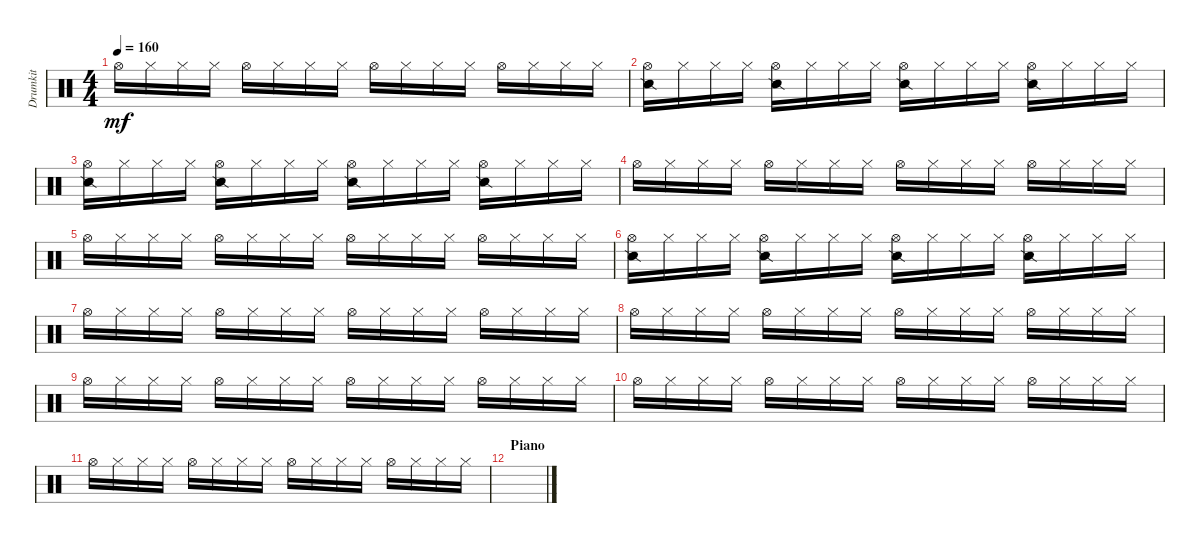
\track ("Drumkit" "Drumkit") {instrument percussion}
\staff {score}
\articulation defaults
\ts (4 4)
\tempo 160
\clef neutral
\ks c "Hi-Hat (open)".16{dy mf} "Hi-Hat (closed)".16 "Hi-Hat (closed)".16 "Hi-Hat (closed)".16 "Hi-Hat (open)".16 "Hi-Hat (closed)".16 "Hi-Hat (closed)".16 "Hi-Hat (closed)".16 "Hi-Hat (open)".16 "Hi-Hat (closed)".16 "Hi-Hat (closed)".16 "Hi-Hat (closed)".16 "Hi-Hat (open)".16 "Hi-Hat (closed)".16 "Hi-Hat (closed)".16 "Hi-Hat (closed)".16
|
("Hi-Hat (open)" "Snare (side stick) 2").16 "Hi-Hat (closed)".16 "Hi-Hat (closed)".16 "Hi-Hat (closed)".16 ("Hi-Hat (open)" "Snare (side stick) 2").16 "Hi-Hat (closed)".16 "Hi-Hat (closed)".16 "Hi-Hat (closed)".16 ("Hi-Hat (open)" "Snare (side stick) 2").16 "Hi-Hat (closed)".16 "Hi-Hat (closed)".16 "Hi-Hat (closed)".16 ("Hi-Hat (open)" "Snare (side stick) 2").16 "Hi-Hat (closed)".16 "Hi-Hat (closed)".16 "Hi-Hat (closed)".16 |
("Hi-Hat (open)" "Snare (side stick) 2").16 "Hi-Hat (closed)".16 "Hi-Hat (closed)".16 "Hi-Hat (closed)".16 ("Hi-Hat (open)" "Snare (side stick) 2").16 "Hi-Hat (closed)".16 "Hi-Hat (closed)".16 "Hi-Hat (closed)".16 ("Hi-Hat (open)" "Snare (side stick) 2").16 "Hi-Hat (closed)".16 "Hi-Hat (closed)".16 "Hi-Hat (closed)".16 ("Hi-Hat (open)" "Snare (side stick) 2").16 "Hi-Hat (closed)".16 "Hi-Hat (closed)".16 "Hi-Hat (closed)".16 |
"Hi-Hat (open)".16 "Hi-Hat (closed)".16 "Hi-Hat (closed)".16 "Hi-Hat (closed)".16 "Hi-Hat (open)".16 "Hi-Hat (closed)".16 "Hi-Hat (closed)".16 "Hi-Hat (closed)".16 "Hi-Hat (open)".16 "Hi-Hat (closed)".16 "Hi-Hat (closed)".16 "Hi-Hat (closed)".16 "Hi-Hat (open)".16 "Hi-Hat (closed)".16 "Hi-Hat (closed)".16 "Hi-Hat (closed)".16 |
"Hi-Hat (open)".16 "Hi-Hat (closed)".16 "Hi-Hat (closed)".16 "Hi-Hat (closed)".16 "Hi-Hat (open)".16 "Hi-Hat (closed)".16 "Hi-Hat (closed)".16 "Hi-Hat (closed)".16 "Hi-Hat (open)".16 "Hi-Hat (closed)".16 "Hi-Hat (closed)".16 "Hi-Hat (closed)".16 "Hi-Hat (open)".16 "Hi-Hat (closed)".16 "Hi-Hat (closed)".16 "Hi-Hat (closed)".16 |
("Hi-Hat (open)" "Snare (side stick) 2").16 "Hi-Hat (closed)".16 "Hi-Hat (closed)".16 "Hi-Hat (closed)".16 ("Hi-Hat (open)" "Snare (side stick) 2").16 "Hi-Hat (closed)".16 "Hi-Hat (closed)".16 "Hi-Hat (closed)".16 ("Hi-Hat (open)" "Snare (side stick) 2").16 "Hi-Hat (closed)".16 "Hi-Hat (closed)".16 "Hi-Hat (closed)".16 ("Hi-Hat (open)" "Snare (side stick) 2").16 "Hi-Hat (closed)".16 "Hi-Hat (closed)".16 "Hi-Hat (closed)".16 |
"Hi-Hat (open)".16 "Hi-Hat (closed)".16 "Hi-Hat (closed)".16 "Hi-Hat (closed)".16 "Hi-Hat (open)".16 "Hi-Hat (closed)".16 "Hi-Hat (closed)".16 "Hi-Hat (closed)".16 "Hi-Hat (open)".16 "Hi-Hat (closed)".16 "Hi-Hat (closed)".16 "Hi-Hat (closed)".16 "Hi-Hat (open)".16 "Hi-Hat (closed)".16 "Hi-Hat (closed)".16 "Hi-Hat (closed)".16 |
"Hi-Hat (open)".16 "Hi-Hat (closed)".16 "Hi-Hat (closed)".16 "Hi-Hat (closed)".16 "Hi-Hat (open)".16 "Hi-Hat (closed)".16 "Hi-Hat (closed)".16 "Hi-Hat (closed)".16 "Hi-Hat (open)".16 "Hi-Hat (closed)".16 "Hi-Hat (closed)".16 "Hi-Hat (closed)".16 "Hi-Hat (open)".16 "Hi-Hat (closed)".16 "Hi-Hat (closed)".16 "Hi-Hat (closed)".16 |
"Hi-Hat (open)".16 "Hi-Hat (closed)".16 "Hi-Hat (closed)".16 "Hi-Hat (closed)".16 "Hi-Hat (open)".16 "Hi-Hat (closed)".16 "Hi-Hat (closed)".16 "Hi-Hat (closed)".16 "Hi-Hat (open)".16 "Hi-Hat (closed)".16 "Hi-Hat (closed)".16 "Hi-Hat (closed)".16 "Hi-Hat (open)".16 "Hi-Hat (closed)".16 "Hi-Hat (closed)".16 "Hi-Hat (closed)".16 |
"Hi-Hat (open)".16 "Hi-Hat (closed)".16 "Hi-Hat (closed)".16 "Hi-Hat (closed)".16 "Hi-Hat (open)".16 "Hi-Hat (closed)".16 "Hi-Hat (closed)".16 "Hi-Hat (closed)".16 "Hi-Hat (open)".16 "Hi-Hat (closed)".16 "Hi-Hat (closed)".16 "Hi-Hat (closed)".16 "Hi-Hat (open)".16 "Hi-Hat (closed)".16 "Hi-Hat (closed)".16 "Hi-Hat (closed)".16 |
"Hi-Hat (open)".16 "Hi-Hat (closed)".16 "Hi-Hat (closed)".16 "Hi-Hat (closed)".16 "Hi-Hat (open)".16 "Hi-Hat (closed)".16 "Hi-Hat (closed)".16 "Hi-Hat (closed)".16 "Hi-Hat (open)".16 "Hi-Hat (closed)".16 "Hi-Hat (closed)".16 "Hi-Hat (closed)".16 "Hi-Hat (open)".16 "Hi-Hat (closed)".16 "Hi-Hat (closed)".16 "Hi-Hat (closed)".16 |
\section ("" "Piano")
